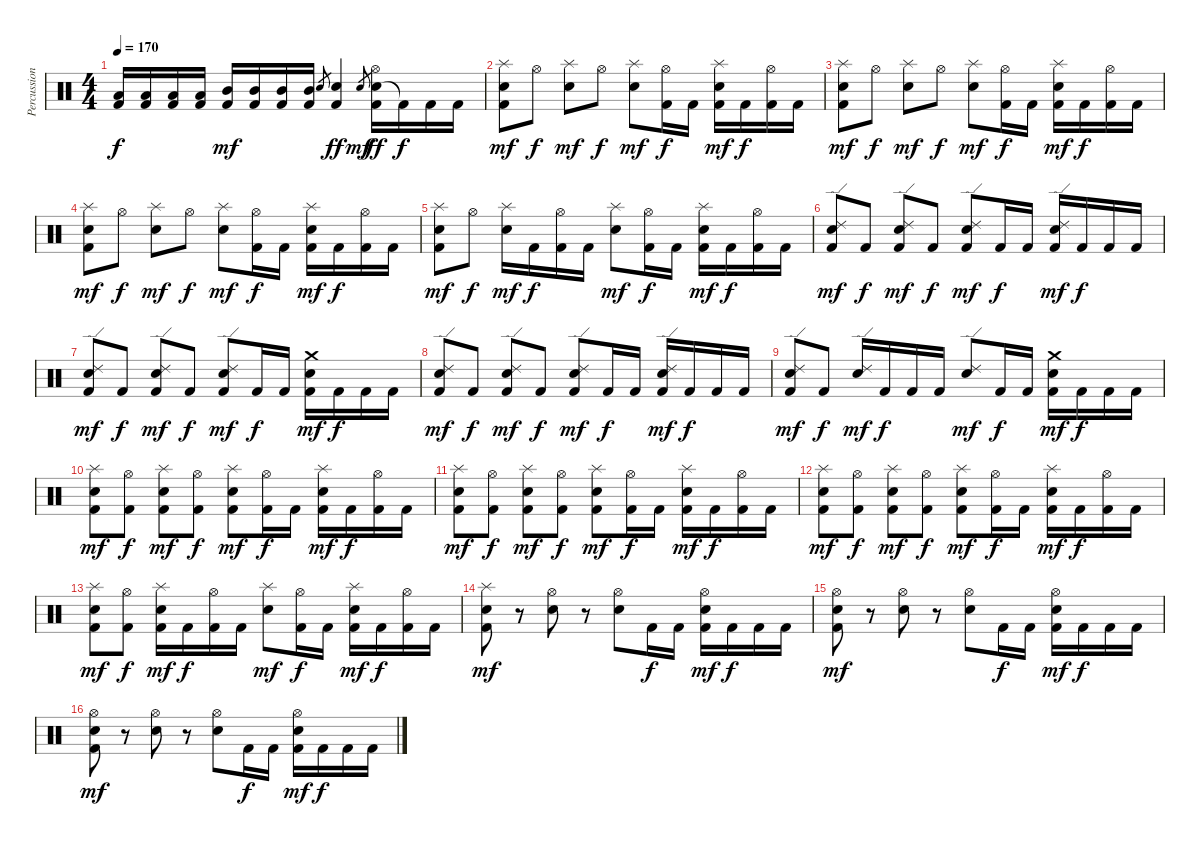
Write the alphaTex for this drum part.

\track ("Percussion" "Percussion") {instrument percussion}
\staff {score}
\articulation defaults
\ts (4 4)
\tempo 170
\clef neutral
\ks c
("Low Tom (hit)" "Kick (hit) 2").16{dy f} ("Low Tom (hit)" "Kick (hit) 2").16 ("Low Tom (hit)" "Kick (hit) 2").16 ("Low Tom (hit)" "Kick (hit) 2").16 ("Mid Tom (hit)" "Kick (hit) 2").16{dy mf} ("Mid Tom (hit)" "Kick (hit) 2").16 ("Mid Tom (hit)" "Kick (hit) 2").16 ("Mid Tom (hit)" "Kick (hit) 2").16 "Snare (hit) 2".8{gr} ("Snare (hit) 2" "Kick (hit) 2").4{dy ff} "Snare (hit) 2".8{gr dy mf} ("Snare (hit) 2" "Hi-Hat (open)" "Kick (hit) 2").16{dy ff} "Kick (hit) 2"{t}.16{dy f} "Kick (hit) 2".16 "Kick (hit) 2".16 |
("Snare (hit) 2" "Splash (hit)" "Kick (hit) 2").8{dy mf} "Hi-Hat (open)".8{dy f} ("Snare (hit) 2" "Splash (hit)").8{dy mf} "Hi-Hat (open)".8{dy f} ("Snare (hit) 2" "Splash (hit)").8{dy mf} ("Hi-Hat (open)" "Kick (hit) 2").16{dy f} "Kick (hit) 2".16 ("Snare (hit) 2" "Splash (hit)" "Kick (hit) 2").16{dy mf} "Kick (hit) 2".16{dy f} ("Hi-Hat (open)" "Kick (hit) 2").16 "Kick (hit) 2".16 |
("Snare (hit) 2" "Splash (hit)" "Kick (hit) 2").8{dy mf} "Hi-Hat (open)".8{dy f} ("Snare (hit) 2" "Splash (hit)").8{dy mf} "Hi-Hat (open)".8{dy f} ("Snare (hit) 2" "Splash (hit)").8{dy mf} ("Hi-Hat (open)" "Kick (hit) 2").16{dy f} "Kick (hit) 2".16 ("Snare (hit) 2" "Splash (hit)" "Kick (hit) 2").16{dy mf} "Kick (hit) 2".16{dy f} ("Hi-Hat (open)" "Kick (hit) 2").16 "Kick (hit) 2".16 |
("Snare (hit) 2" "Splash (hit)" "Kick (hit) 2").8{dy mf} "Hi-Hat (open)".8{dy f} ("Snare (hit) 2" "Splash (hit)").8{dy mf} "Hi-Hat (open)".8{dy f} ("Snare (hit) 2" "Splash (hit)").8{dy mf} ("Hi-Hat (open)" "Kick (hit) 2").16{dy f} "Kick (hit) 2".16 ("Snare (hit) 2" "Splash (hit)" "Kick (hit) 2").16{dy mf} "Kick (hit) 2".16{dy f} ("Hi-Hat (open)" "Kick (hit) 2").16 "Kick (hit) 2".16 |
("Snare (hit) 2" "Splash (hit)" "Kick (hit) 2").8{dy mf} "Hi-Hat (open)".8{dy f} ("Snare (hit) 2" "Splash (hit)").16{dy mf} "Kick (hit) 2".16{dy f} ("Hi-Hat (open)" "Kick (hit) 2").16 "Kick (hit) 2".16 ("Snare (hit) 2" "Splash (hit)").8{dy mf} ("Hi-Hat (open)" "Kick (hit) 2").16{dy f} "Kick (hit) 2".16 ("Snare (hit) 2" "Splash (hit)" "Kick (hit) 2").16{dy mf} "Kick (hit) 2".16{dy f} ("Hi-Hat (open)" "Kick (hit) 2").16 "Kick (hit) 2".16 |
("Snare (hit) 2" "Ride (edge) 2" "Kick (hit) 2").8{dy mf} "Kick (hit) 2".8{dy f} ("Snare (hit) 2" "Ride (edge) 2" "Kick (hit) 2").8{dy mf} "Kick (hit) 2".8{dy f} ("Snare (hit) 2" "Ride (edge) 2" "Kick (hit) 2").8{dy mf} "Kick (hit) 2".16{dy f} "Kick (hit) 2".16 ("Snare (hit) 2" "Ride (edge) 2" "Kick (hit) 2").16{dy mf} "Kick (hit) 2".16{dy f} "Kick (hit) 2".16 "Kick (hit) 2".16 |
("Snare (hit) 2" "Ride (edge) 2" "Kick (hit) 2").8{dy mf} "Kick (hit) 2".8{dy f} ("Snare (hit) 2" "Ride (edge) 2" "Kick (hit) 2").8{dy mf} "Kick (hit) 2".8{dy f} ("Snare (hit) 2" "Ride (edge) 2" "Kick (hit) 2").8{dy mf} "Kick (hit) 2".16{dy f} "Kick (hit) 2".16 ("Snare (hit) 2" "Crash medium (hit)" "Kick (hit) 2").16{dy mf} "Kick (hit) 2".16{dy f} "Kick (hit) 2".16 "Kick (hit) 2".16 |
("Snare (hit) 2" "Ride (edge) 2" "Kick (hit) 2").8{dy mf} "Kick (hit) 2".8{dy f} ("Snare (hit) 2" "Ride (edge) 2" "Kick (hit) 2").8{dy mf} "Kick (hit) 2".8{dy f} ("Snare (hit) 2" "Ride (edge) 2" "Kick (hit) 2").8{dy mf} "Kick (hit) 2".16{dy f} "Kick (hit) 2".16 ("Snare (hit) 2" "Ride (edge) 2" "Kick (hit) 2").16{dy mf} "Kick (hit) 2".16{dy f} "Kick (hit) 2".16 "Kick (hit) 2".16 |
("Snare (hit) 2" "Ride (edge) 2" "Kick (hit) 2").8{dy mf} "Kick (hit) 2".8{dy f} ("Snare (hit) 2" "Ride (edge) 2").16{dy mf} "Kick (hit) 2".16{dy f} "Kick (hit) 2".16 "Kick (hit) 2".16 ("Snare (hit) 2" "Ride (edge) 2").8{dy mf} "Kick (hit) 2".16{dy f} "Kick (hit) 2".16 ("Snare (hit) 2" "Crash medium (hit)" "Kick (hit) 2").16{dy mf} "Kick (hit) 2".16{dy f} "Kick (hit) 2".16 "Kick (hit) 2".16 |
("Snare (hit) 2" "Splash (hit)" "Kick (hit) 2").8{dy mf} ("Hi-Hat (open)" "Kick (hit) 2").8{dy f} ("Snare (hit) 2" "Splash (hit)" "Kick (hit) 2").8{dy mf} ("Hi-Hat (open)" "Kick (hit) 2").8{dy f} ("Snare (hit) 2" "Splash (hit)" "Kick (hit) 2").8{dy mf} ("Hi-Hat (open)" "Kick (hit) 2").16{dy f} "Kick (hit) 2".16 ("Snare (hit) 2" "Splash (hit)" "Kick (hit) 2").16{dy mf} "Kick (hit) 2".16{dy f} ("Hi-Hat (open)" "Kick (hit) 2").16 "Kick (hit) 2".16 |
("Snare (hit) 2" "Splash (hit)" "Kick (hit) 2").8{dy mf} ("Hi-Hat (open)" "Kick (hit) 2").8{dy f} ("Snare (hit) 2" "Splash (hit)" "Kick (hit) 2").8{dy mf} ("Hi-Hat (open)" "Kick (hit) 2").8{dy f} ("Snare (hit) 2" "Splash (hit)" "Kick (hit) 2").8{dy mf} ("Hi-Hat (open)" "Kick (hit) 2").16{dy f} "Kick (hit) 2".16 ("Snare (hit) 2" "Splash (hit)" "Kick (hit) 2").16{dy mf} "Kick (hit) 2".16{dy f} ("Hi-Hat (open)" "Kick (hit) 2").16 "Kick (hit) 2".16 |
("Snare (hit) 2" "Splash (hit)" "Kick (hit) 2").8{dy mf} ("Hi-Hat (open)" "Kick (hit) 2").8{dy f} ("Snare (hit) 2" "Splash (hit)" "Kick (hit) 2").8{dy mf} ("Hi-Hat (open)" "Kick (hit) 2").8{dy f} ("Snare (hit) 2" "Splash (hit)" "Kick (hit) 2").8{dy mf} ("Hi-Hat (open)" "Kick (hit) 2").16{dy f} "Kick (hit) 2".16 ("Snare (hit) 2" "Splash (hit)" "Kick (hit) 2").16{dy mf} "Kick (hit) 2".16{dy f} ("Hi-Hat (open)" "Kick (hit) 2").16 "Kick (hit) 2".16 |
("Snare (hit) 2" "Splash (hit)" "Kick (hit) 2").8{dy mf} ("Hi-Hat (open)" "Kick (hit) 2").8{dy f} ("Snare (hit) 2" "Splash (hit)" "Kick (hit) 2").16{dy mf} "Kick (hit) 2".16{dy f} ("Hi-Hat (open)" "Kick (hit) 2").16 "Kick (hit) 2".16 ("Snare (hit) 2" "Splash (hit)").8{dy mf} ("Hi-Hat (open)" "Kick (hit) 2").16{dy f} "Kick (hit) 2".16 ("Snare (hit) 2" "Splash (hit)" "Kick (hit) 2").16{dy mf} "Kick (hit) 2".16{dy f} ("Hi-Hat (open)" "Kick (hit) 2").16 "Kick (hit) 2".16 |
("Snare (hit) 2" "Splash (hit)" "Kick (hit) 2").8{dy mf} r.8 ("Snare (hit) 2" "Hi-Hat (open)").8 r.8 ("Snare (hit) 2" "Hi-Hat (open)").8 "Kick (hit) 2".16{dy f} "Kick (hit) 2".16 ("Snare (hit) 2" "Hi-Hat (open)" "Kick (hit) 2").16{dy mf} "Kick (hit) 2".16{dy f} "Kick (hit) 2".16 "Kick (hit) 2".16 |
("Snare (hit) 2" "Hi-Hat (open)" "Kick (hit) 2").8{dy mf} r.8 ("Snare (hit) 2" "Hi-Hat (open)").8 r.8 ("Snare (hit) 2" "Hi-Hat (open)").8 "Kick (hit) 2".16{dy f} "Kick (hit) 2".16 ("Snare (hit) 2" "Hi-Hat (open)" "Kick (hit) 2").16{dy mf} "Kick (hit) 2".16{dy f} "Kick (hit) 2".16 "Kick (hit) 2".16 |
("Snare (hit) 2" "Hi-Hat (open)" "Kick (hit) 2").8{dy mf} r.8 ("Snare (hit) 2" "Hi-Hat (open)").8 r.8 ("Snare (hit) 2" "Hi-Hat (open)").8 "Kick (hit) 2".16{dy f} "Kick (hit) 2".16 ("Snare (hit) 2" "Hi-Hat (open)" "Kick (hit) 2").16{dy mf} "Kick (hit) 2".16{dy f} "Kick (hit) 2".16 "Kick (hit) 2".16
